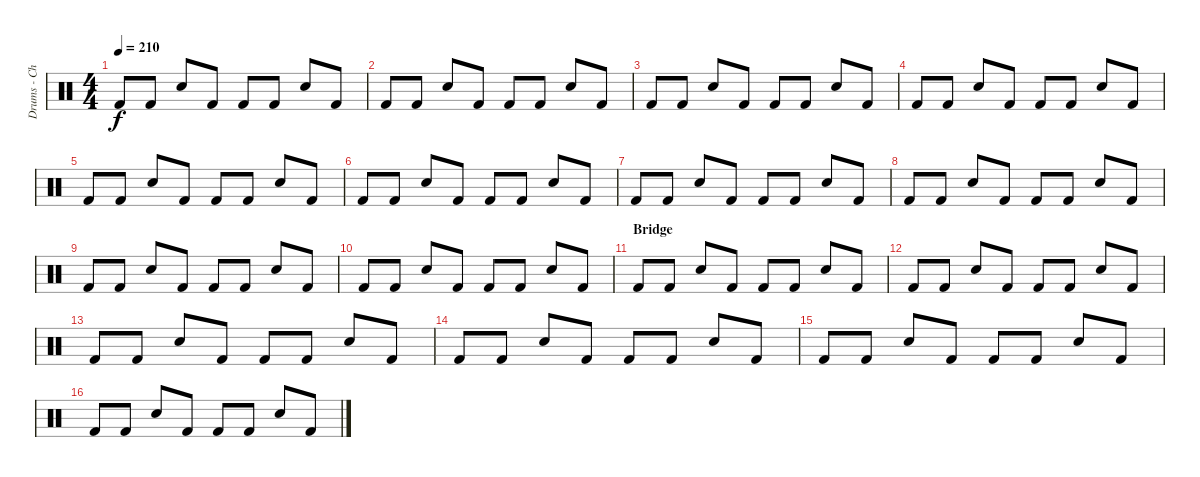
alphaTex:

\track ("Drums - Chad Smith" "Drums - Ch") {instrument percussion}
\staff {score}
\articulation defaults
\ts (4 4)
\tempo 210
\clef neutral
\ks c "Kick (hit) 2".8{dy f} "Kick (hit) 2".8 "Electric Snare (hit)".8 "Kick (hit) 2".8 "Kick (hit) 2".8 "Kick (hit) 2".8 "Electric Snare (hit)".8 "Kick (hit) 2".8
|
"Kick (hit) 2".8 "Kick (hit) 2".8 "Electric Snare (hit)".8 "Kick (hit) 2".8 "Kick (hit) 2".8 "Kick (hit) 2".8 "Electric Snare (hit)".8 "Kick (hit) 2".8 |
"Kick (hit) 2".8 "Kick (hit) 2".8 "Electric Snare (hit)".8 "Kick (hit) 2".8 "Kick (hit) 2".8 "Kick (hit) 2".8 "Electric Snare (hit)".8 "Kick (hit) 2".8 |
"Kick (hit) 2".8 "Kick (hit) 2".8 "Electric Snare (hit)".8 "Kick (hit) 2".8 "Kick (hit) 2".8 "Kick (hit) 2".8 "Electric Snare (hit)".8 "Kick (hit) 2".8 |
"Kick (hit) 2".8 "Kick (hit) 2".8 "Electric Snare (hit)".8 "Kick (hit) 2".8 "Kick (hit) 2".8 "Kick (hit) 2".8 "Electric Snare (hit)".8 "Kick (hit) 2".8 |
"Kick (hit) 2".8 "Kick (hit) 2".8 "Electric Snare (hit)".8 "Kick (hit) 2".8 "Kick (hit) 2".8 "Kick (hit) 2".8 "Electric Snare (hit)".8 "Kick (hit) 2".8 |
"Kick (hit) 2".8 "Kick (hit) 2".8 "Electric Snare (hit)".8 "Kick (hit) 2".8 "Kick (hit) 2".8 "Kick (hit) 2".8 "Electric Snare (hit)".8 "Kick (hit) 2".8 |
"Kick (hit) 2".8 "Kick (hit) 2".8 "Electric Snare (hit)".8 "Kick (hit) 2".8 "Kick (hit) 2".8 "Kick (hit) 2".8 "Electric Snare (hit)".8 "Kick (hit) 2".8 |
"Kick (hit) 2".8 "Kick (hit) 2".8 "Electric Snare (hit)".8 "Kick (hit) 2".8 "Kick (hit) 2".8 "Kick (hit) 2".8 "Electric Snare (hit)".8 "Kick (hit) 2".8 |
"Kick (hit) 2".8 "Kick (hit) 2".8 "Electric Snare (hit)".8 "Kick (hit) 2".8 "Kick (hit) 2".8 "Kick (hit) 2".8 "Electric Snare (hit)".8 "Kick (hit) 2".8 |
\section ("" "Bridge")
"Kick (hit) 2".8 "Kick (hit) 2".8 "Electric Snare (hit)".8 "Kick (hit) 2".8 "Kick (hit) 2".8 "Kick (hit) 2".8 "Electric Snare (hit)".8 "Kick (hit) 2".8 |
"Kick (hit) 2".8 "Kick (hit) 2".8 "Electric Snare (hit)".8 "Kick (hit) 2".8 "Kick (hit) 2".8 "Kick (hit) 2".8 "Electric Snare (hit)".8 "Kick (hit) 2".8 |
"Kick (hit) 2".8 "Kick (hit) 2".8 "Electric Snare (hit)".8 "Kick (hit) 2".8 "Kick (hit) 2".8 "Kick (hit) 2".8 "Electric Snare (hit)".8 "Kick (hit) 2".8 |
"Kick (hit) 2".8 "Kick (hit) 2".8 "Electric Snare (hit)".8 "Kick (hit) 2".8 "Kick (hit) 2".8 "Kick (hit) 2".8 "Electric Snare (hit)".8 "Kick (hit) 2".8 |
"Kick (hit) 2".8 "Kick (hit) 2".8 "Electric Snare (hit)".8 "Kick (hit) 2".8 "Kick (hit) 2".8 "Kick (hit) 2".8 "Electric Snare (hit)".8 "Kick (hit) 2".8 |
"Kick (hit) 2".8 "Kick (hit) 2".8 "Electric Snare (hit)".8 "Kick (hit) 2".8 "Kick (hit) 2".8 "Kick (hit) 2".8 "Electric Snare (hit)".8 "Kick (hit) 2".8
